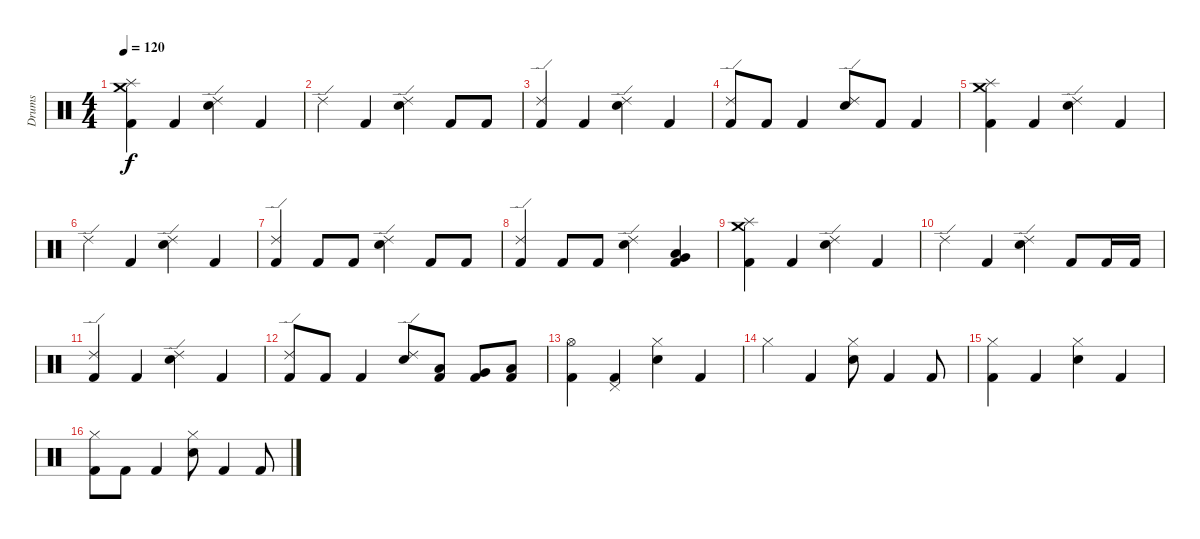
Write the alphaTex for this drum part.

\track ("Drums" "Drums") {instrument percussion}
\staff {score}
\articulation defaults
\ts (4 4)
\tempo 120
\clef neutral
\ks c
("Crash medium (hit)" "Splash (hit)" "Kick (hit) 2").4{dy f} "Kick (hit) 2".4 ("Ride (edge) 2" "Electric Snare (hit)").4 "Kick (hit) 2".4 |
"Ride (edge) 2".4 "Kick (hit) 2".4 ("Ride (edge) 2" "Electric Snare (hit)").4 "Kick (hit) 2".8 "Kick (hit) 2".8 |
("Ride (edge) 2" "Kick (hit) 2").4 "Kick (hit) 2".4 ("Ride (edge) 2" "Electric Snare (hit)").4 "Kick (hit) 2".4 |
("Ride (edge) 2" "Kick (hit) 2").8 "Kick (hit) 2".8 "Kick (hit) 2".4 ("Ride (edge) 2" "Electric Snare (hit)").8 "Kick (hit) 2".8 "Kick (hit) 2".4 |
("Crash medium (hit)" "Splash (hit)" "Kick (hit) 2").4 "Kick (hit) 2".4 ("Ride (edge) 2" "Electric Snare (hit)").4 "Kick (hit) 2".4 |
"Ride (edge) 2".4 "Kick (hit) 2".4 ("Ride (edge) 2" "Electric Snare (hit)").4 "Kick (hit) 2".4 |
("Ride (edge) 2" "Kick (hit) 2").4 "Kick (hit) 2".8 "Kick (hit) 2".8 ("Ride (edge) 2" "Electric Snare (hit)").4 "Kick (hit) 2".8 "Kick (hit) 2".8 |
("Ride (edge) 2" "Kick (hit) 2").4 "Kick (hit) 2".8 "Kick (hit) 2".8 ("Ride (edge) 2" "Electric Snare (hit)").4 ("Low Floor Tom (hit)" "Very Low Tom (hit)" "Kick (hit) 2").4 |
("Crash medium (hit)" "Splash (hit)" "Kick (hit) 2").4 "Kick (hit) 2".4 ("Ride (edge) 2" "Electric Snare (hit)").4 "Kick (hit) 2".4 |
"Ride (edge) 2".4 "Kick (hit) 2".4 ("Ride (edge) 2" "Electric Snare (hit)").4 "Kick (hit) 2".8 "Kick (hit) 2".16 "Kick (hit) 2".16 |
("Ride (edge) 2" "Kick (hit) 2").4 "Kick (hit) 2".4 ("Ride (edge) 2" "Electric Snare (hit)").4 "Kick (hit) 2".4 |
("Ride (edge) 2" "Kick (hit) 2").8 "Kick (hit) 2".8 "Kick (hit) 2".4 ("Ride (edge) 2" "Electric Snare (hit)").8 ("Low Tom (hit)" "Kick (hit) 2").8 ("Very Low Tom (hit)" "Kick (hit) 2").8 ("Low Floor Tom (hit)" "Kick (hit) 2").8 |
("Hi-Hat (open)" "Kick (hit) 2").4 ("Pedal Hi-Hat (hit)" "Kick (hit) 2").4 ("Hi-Hat (closed)" "Electric Snare (hit)").4 "Kick (hit) 2".4 |
"Hi-Hat (closed)".4 "Kick (hit) 2".4 ("Hi-Hat (closed)" "Electric Snare (hit)").8 "Kick (hit) 2".4 "Kick (hit) 2".8 |
("Hi-Hat (closed)" "Kick (hit) 2").4 "Kick (hit) 2".4 ("Hi-Hat (closed)" "Electric Snare (hit)").4 "Kick (hit) 2".4 |
("Hi-Hat (closed)" "Kick (hit) 2").8 "Kick (hit) 2".8 "Kick (hit) 2".4 ("Hi-Hat (closed)" "Electric Snare (hit)").8 "Kick (hit) 2".4 "Kick (hit) 2".8
